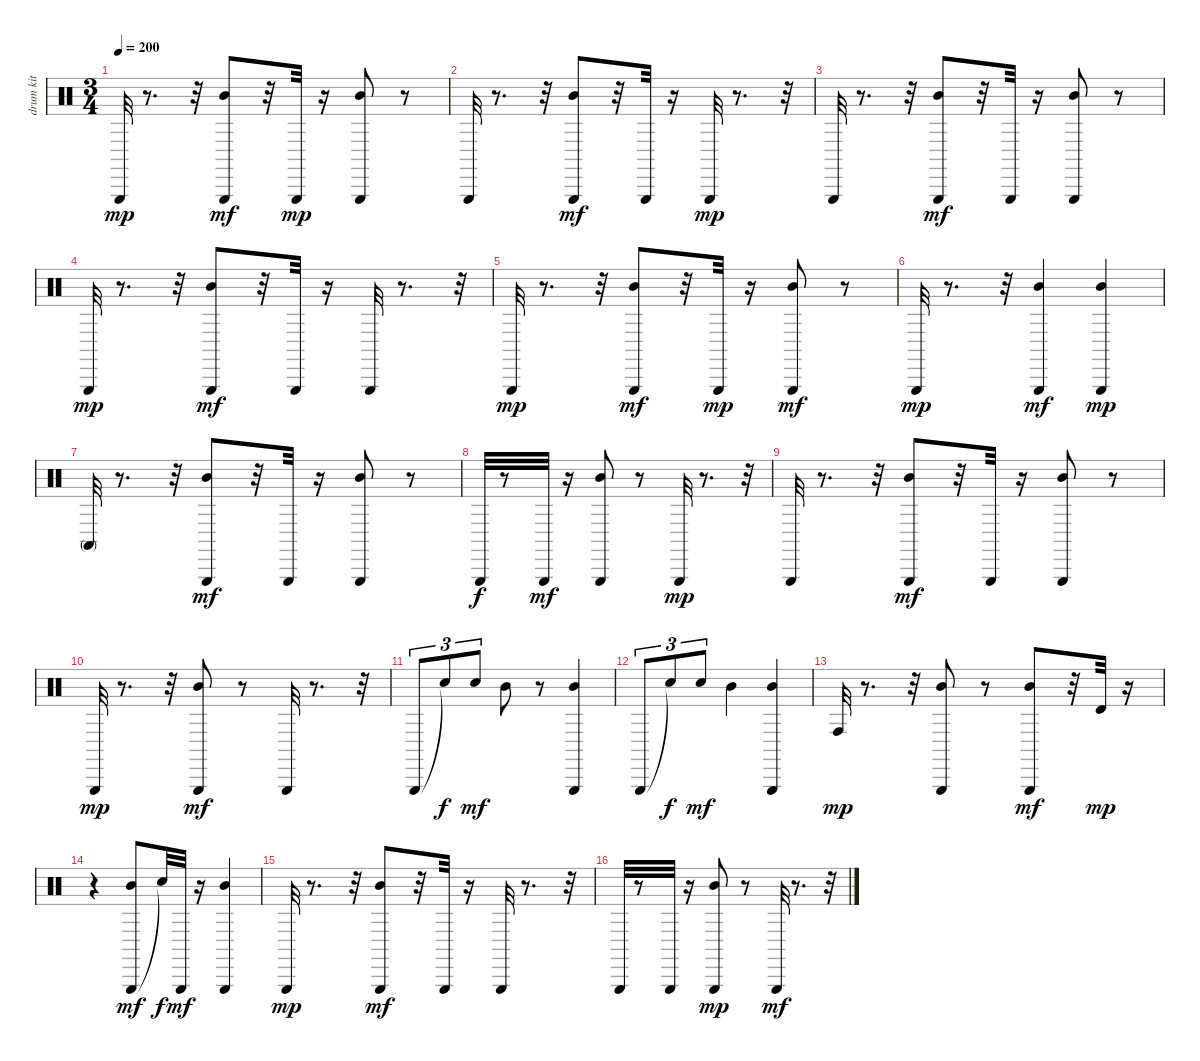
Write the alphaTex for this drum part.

\track (" drum kit (hi-hat/cymbals)" " drum kit ") {instrument percussion}
\staff {score}
\articulation defaults
\ts (3 4)
\tempo 200
\clef neutral
\ks c "Triangle (hit)".32{dy mp}
r.8{d} r.32 ("Mid Tom (hit)" "Triangle (hit)").8{dy mf} r.32 "Triangle (hit)".32{dy mp} r.16 ("Mid Tom (hit)" "Triangle (hit)").8 r.8 |
"Triangle (hit)".32 r.8{d} r.32 ("Triangle (hit)" "Mid Tom (hit)").8{dy mf} r.32 "Triangle (hit)".32 r.16 "Triangle (hit)".32{dy mp} r.8{d} r.32 |
"Triangle (hit)".32 r.8{d} r.32 ("Mid Tom (hit)" "Triangle (hit)").8{dy mf} r.32 "Triangle (hit)".32 r.16 ("Mid Tom (hit)" "Triangle (hit)").8 r.8 |
"Triangle (hit)".32{dy mp} r.8{d} r.32 ("Mid Tom (hit)" "Triangle (hit)").8{dy mf} r.32 "Triangle (hit)".32 r.16 "Triangle (hit)".32 r.8{d} r.32 |
"Triangle (hit)".32{dy mp} r.8{d} r.32 ("Mid Tom (hit)" "Triangle (hit)").8{dy mf} r.32 "Triangle (hit)".32{dy mp} r.16 ("Mid Tom (hit)" "Triangle (hit)").8{dy mf} r.8 |
"Triangle (hit)".32{dy mp} r.8{d} r.32 ("Mid Tom (hit)" "Triangle (hit)").4{dy mf} ("Mid Tom (hit)" "Triangle (hit)").4{dy mp} |
"Conga high (mute)".32 r.8{d} r.32 ("Triangle (hit)" "Mid Tom (hit)").8{dy mf} r.32 "Triangle (hit)".32 r.16 ("Triangle (hit)" "Mid Tom (hit)").8 r.8 |
"Triangle (hit)".32{dy f} r.8 "Triangle (hit)".32{dy mf} r.16 ("Mid Tom (hit)" "Triangle (hit)").8 r.8 "Triangle (hit)".32{dy mp} r.8{d} r.32 |
"Triangle (hit)".32 r.8{d} r.32 ("Mid Tom (hit)" "Triangle (hit)").8{dy mf} r.32 "Triangle (hit)".32 r.16 ("Mid Tom (hit)" "Triangle (hit)").8 r.8 |
"Triangle (hit)".32{dy mp} r.8{d} r.32 ("Mid Tom (hit)" "Triangle (hit)").8{dy mf} r.8 "Triangle (hit)".32 r.8{d} r.32 |
"Triangle (hit)".8{tu (3 2)} "Snare (hit)"{t}.8{tu (3 2) dy f} "Snare (hit)".8{tu (3 2) dy mf} "Mid Tom (hit)".8 r.8 ("Mid Tom (hit)" "Triangle (hit)").4 |
"Triangle (hit)".8{tu (3 2)} "Snare (hit)"{t}.8{tu (3 2) dy f} "Snare (hit)".8{tu (3 2) dy mf} "Mid Tom (hit)".4 ("Mid Tom (hit)" "Triangle (hit)").4 |
"Conga high (hit)".32{dy mp} r.8{d} r.32 ("Mid Tom (hit)" "Triangle (hit)").8 r.8 ("Mid Tom (hit)" "Triangle (hit)").8{dy mf} r.32 "Timbale high (hit)".32{dy mp} r.16 |
r.4 ("Triangle (hit)" "Mid Tom (hit)").8{dy mf} "Snare (hit)"{t}.32{dy f} "Triangle (hit)".32{dy mf} r.16 ("Triangle (hit)" "Mid Tom (hit)").4 |
"Triangle (hit)".32{dy mp} r.8{d} r.32 ("Mid Tom (hit)" "Triangle (hit)").8{dy mf} r.32 "Triangle (hit)".32 r.16 "Triangle (hit)".32 r.8{d} r.32 |
"Triangle (hit)".32 r.8 "Triangle (hit)".32 r.16 ("Mid Tom (hit)" "Triangle (hit)").8{dy mp} r.8 "Triangle (hit)".32{dy mf} r.8{d} r.32
